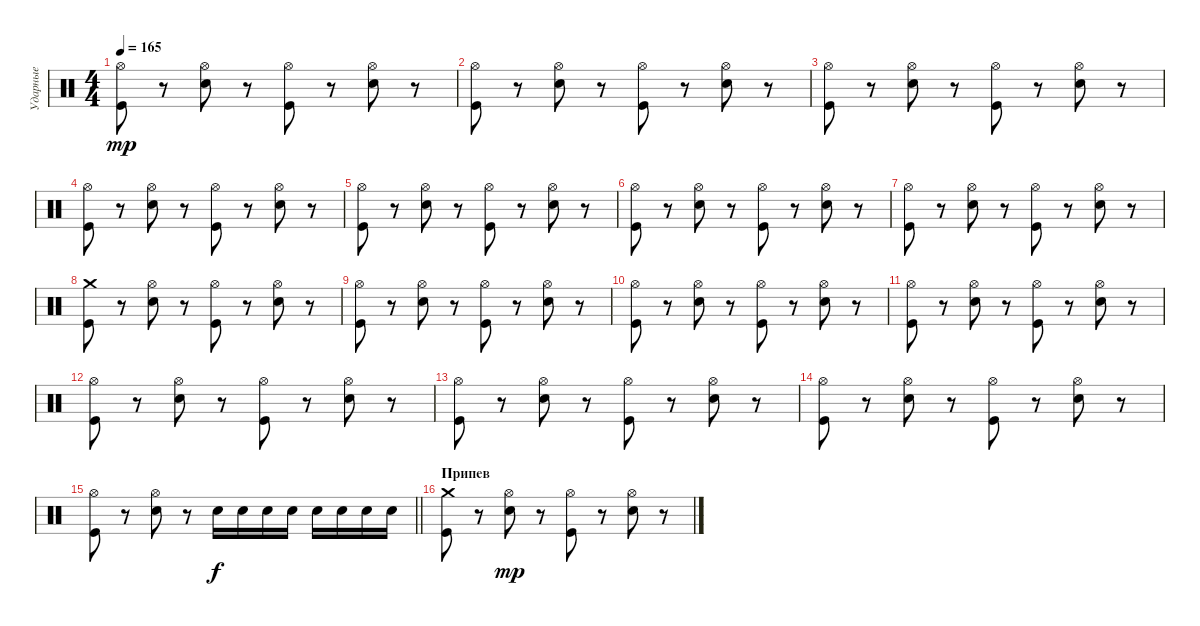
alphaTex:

\track ("Ударные" "Ударные") {instrument percussion}
\staff {score}
\articulation defaults
\ts (4 4)
\tempo 165
\clef neutral
\ks c
("Hi-Hat (open)" "Kick (hit)").8{dy mp} r.8 ("Hi-Hat (open)" "Electric Snare (hit)").8 r.8 ("Hi-Hat (open)" "Kick (hit)").8 r.8 ("Hi-Hat (open)" "Electric Snare (hit)").8 r.8 |
("Hi-Hat (open)" "Kick (hit)").8 r.8 ("Hi-Hat (open)" "Electric Snare (hit)").8 r.8 ("Hi-Hat (open)" "Kick (hit)").8 r.8 ("Hi-Hat (open)" "Electric Snare (hit)").8 r.8 |
("Hi-Hat (open)" "Kick (hit)").8 r.8 ("Hi-Hat (open)" "Electric Snare (hit)").8 r.8 ("Hi-Hat (open)" "Kick (hit)").8 r.8 ("Hi-Hat (open)" "Electric Snare (hit)").8 r.8 |
("Hi-Hat (open)" "Kick (hit)").8 r.8 ("Hi-Hat (open)" "Electric Snare (hit)").8 r.8 ("Hi-Hat (open)" "Kick (hit)").8 r.8 ("Hi-Hat (open)" "Electric Snare (hit)").8 r.8 |
("Hi-Hat (open)" "Kick (hit)").8 r.8 ("Hi-Hat (open)" "Electric Snare (hit)").8 r.8 ("Hi-Hat (open)" "Kick (hit)").8 r.8 ("Hi-Hat (open)" "Electric Snare (hit)").8 r.8 |
("Hi-Hat (open)" "Kick (hit)").8 r.8 ("Hi-Hat (open)" "Electric Snare (hit)").8 r.8 ("Hi-Hat (open)" "Kick (hit)").8 r.8 ("Hi-Hat (open)" "Electric Snare (hit)").8 r.8 |
("Hi-Hat (open)" "Kick (hit)").8 r.8 ("Hi-Hat (open)" "Electric Snare (hit)").8 r.8 ("Hi-Hat (open)" "Kick (hit)").8 r.8 ("Hi-Hat (open)" "Electric Snare (hit)").8 r.8 |
("Crash medium (hit)" "Kick (hit)").8 r.8 ("Hi-Hat (open)" "Electric Snare (hit)").8 r.8 ("Hi-Hat (open)" "Kick (hit)").8 r.8 ("Hi-Hat (open)" "Electric Snare (hit)").8 r.8 |
("Hi-Hat (open)" "Kick (hit)").8 r.8 ("Hi-Hat (open)" "Electric Snare (hit)").8 r.8 ("Hi-Hat (open)" "Kick (hit)").8 r.8 ("Hi-Hat (open)" "Electric Snare (hit)").8 r.8 |
("Hi-Hat (open)" "Kick (hit)").8 r.8 ("Hi-Hat (open)" "Electric Snare (hit)").8 r.8 ("Hi-Hat (open)" "Kick (hit)").8 r.8 ("Hi-Hat (open)" "Electric Snare (hit)").8 r.8 |
("Hi-Hat (open)" "Kick (hit)").8 r.8 ("Hi-Hat (open)" "Electric Snare (hit)").8 r.8 ("Hi-Hat (open)" "Kick (hit)").8 r.8 ("Hi-Hat (open)" "Electric Snare (hit)").8 r.8 |
("Hi-Hat (open)" "Kick (hit)").8 r.8 ("Hi-Hat (open)" "Electric Snare (hit)").8 r.8 ("Hi-Hat (open)" "Kick (hit)").8 r.8 ("Hi-Hat (open)" "Electric Snare (hit)").8 r.8 |
("Hi-Hat (open)" "Kick (hit)").8 r.8 ("Hi-Hat (open)" "Electric Snare (hit)").8 r.8 ("Hi-Hat (open)" "Kick (hit)").8 r.8 ("Hi-Hat (open)" "Electric Snare (hit)").8 r.8 |
("Hi-Hat (open)" "Kick (hit)").8 r.8 ("Hi-Hat (open)" "Electric Snare (hit)").8 r.8 ("Hi-Hat (open)" "Kick (hit)").8 r.8 ("Hi-Hat (open)" "Electric Snare (hit)").8 r.8 |
\barLineRight lightlight
("Hi-Hat (open)" "Kick (hit)").8 r.8 ("Hi-Hat (open)" "Electric Snare (hit)").8 r.8 "Electric Snare (hit)".16{dy f} "Electric Snare (hit)".16 "Electric Snare (hit)".16 "Electric Snare (hit)".16 "Electric Snare (hit)".16 "Electric Snare (hit)".16 "Electric Snare (hit)".16 "Electric Snare (hit)".16 |
\section ("" "Припев")
("Crash medium (hit)" "Kick (hit)").8 r.8 ("Hi-Hat (open)" "Electric Snare (hit)").8{dy mp} r.8 ("Hi-Hat (open)" "Kick (hit)").8 r.8 ("Hi-Hat (open)" "Electric Snare (hit)").8 r.8
